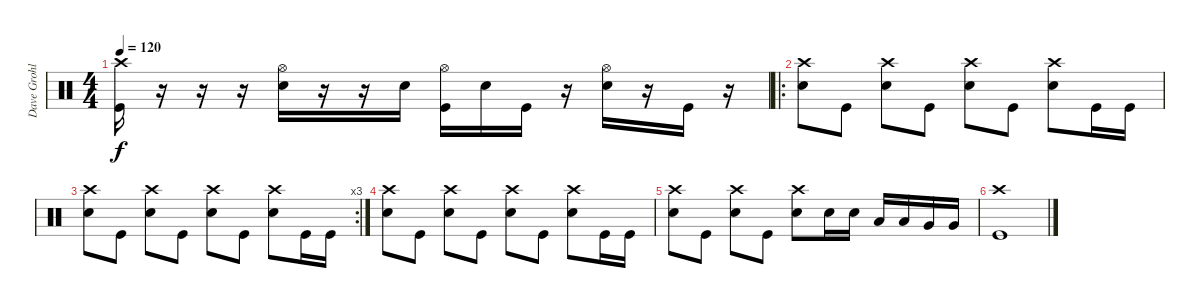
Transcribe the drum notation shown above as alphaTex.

\track ("Dave Grohl (Drums)" "Dave Grohl") {instrument percussion}
\staff {score}
\articulation defaults
\ts (4 4)
\tempo 120
\clef neutral
\ks c
("Crash high (hit)" "Kick (hit)").16{dy f} r.16 r.16 r.16 ("Hi-Hat (open)" "Snare (hit) 2").16 r.16 r.16 "Snare (hit) 2".16 ("Hi-Hat (open)" "Kick (hit)").16 "Snare (hit) 2".16 "Kick (hit)".16 r.16 ("Hi-Hat (open)" "Snare (hit) 2").16 r.16 "Kick (hit)".16 r.16 |
\ro
("Crash high (hit)" "Snare (hit) 2").8 "Kick (hit)".8 ("Crash high (hit)" "Snare (hit) 2").8 "Kick (hit)".8 ("Crash high (hit)" "Snare (hit) 2").8 "Kick (hit)".8 ("Crash high (hit)" "Snare (hit) 2").8 "Kick (hit)".16 "Kick (hit)".16 |
\rc 3
("Crash high (hit)" "Snare (hit) 2").8 "Kick (hit)".8 ("Crash high (hit)" "Snare (hit) 2").8 "Kick (hit)".8 ("Crash high (hit)" "Snare (hit) 2").8 "Kick (hit)".8 ("Crash high (hit)" "Snare (hit) 2").8 "Kick (hit)".16 "Kick (hit)".16 |
("Crash high (hit)" "Snare (hit) 2").8 "Kick (hit)".8 ("Crash high (hit)" "Snare (hit) 2").8 "Kick (hit)".8 ("Crash high (hit)" "Snare (hit) 2").8 "Kick (hit)".8 ("Crash high (hit)" "Snare (hit) 2").8 "Kick (hit)".16 "Kick (hit)".16 |
("Crash high (hit)" "Snare (hit) 2").8 "Kick (hit)".8 ("Crash high (hit)" "Snare (hit) 2").8 "Kick (hit)".8 ("Crash high (hit)" "Snare (hit) 2").8 "Snare (hit) 2".16 "Snare (hit) 2".16 "Low Floor Tom (hit)".16 "Low Floor Tom (hit)".16 "Very Low Tom (hit)".16 "Very Low Tom (hit)".16 |
("Crash high (hit)" "Kick (hit)").1
